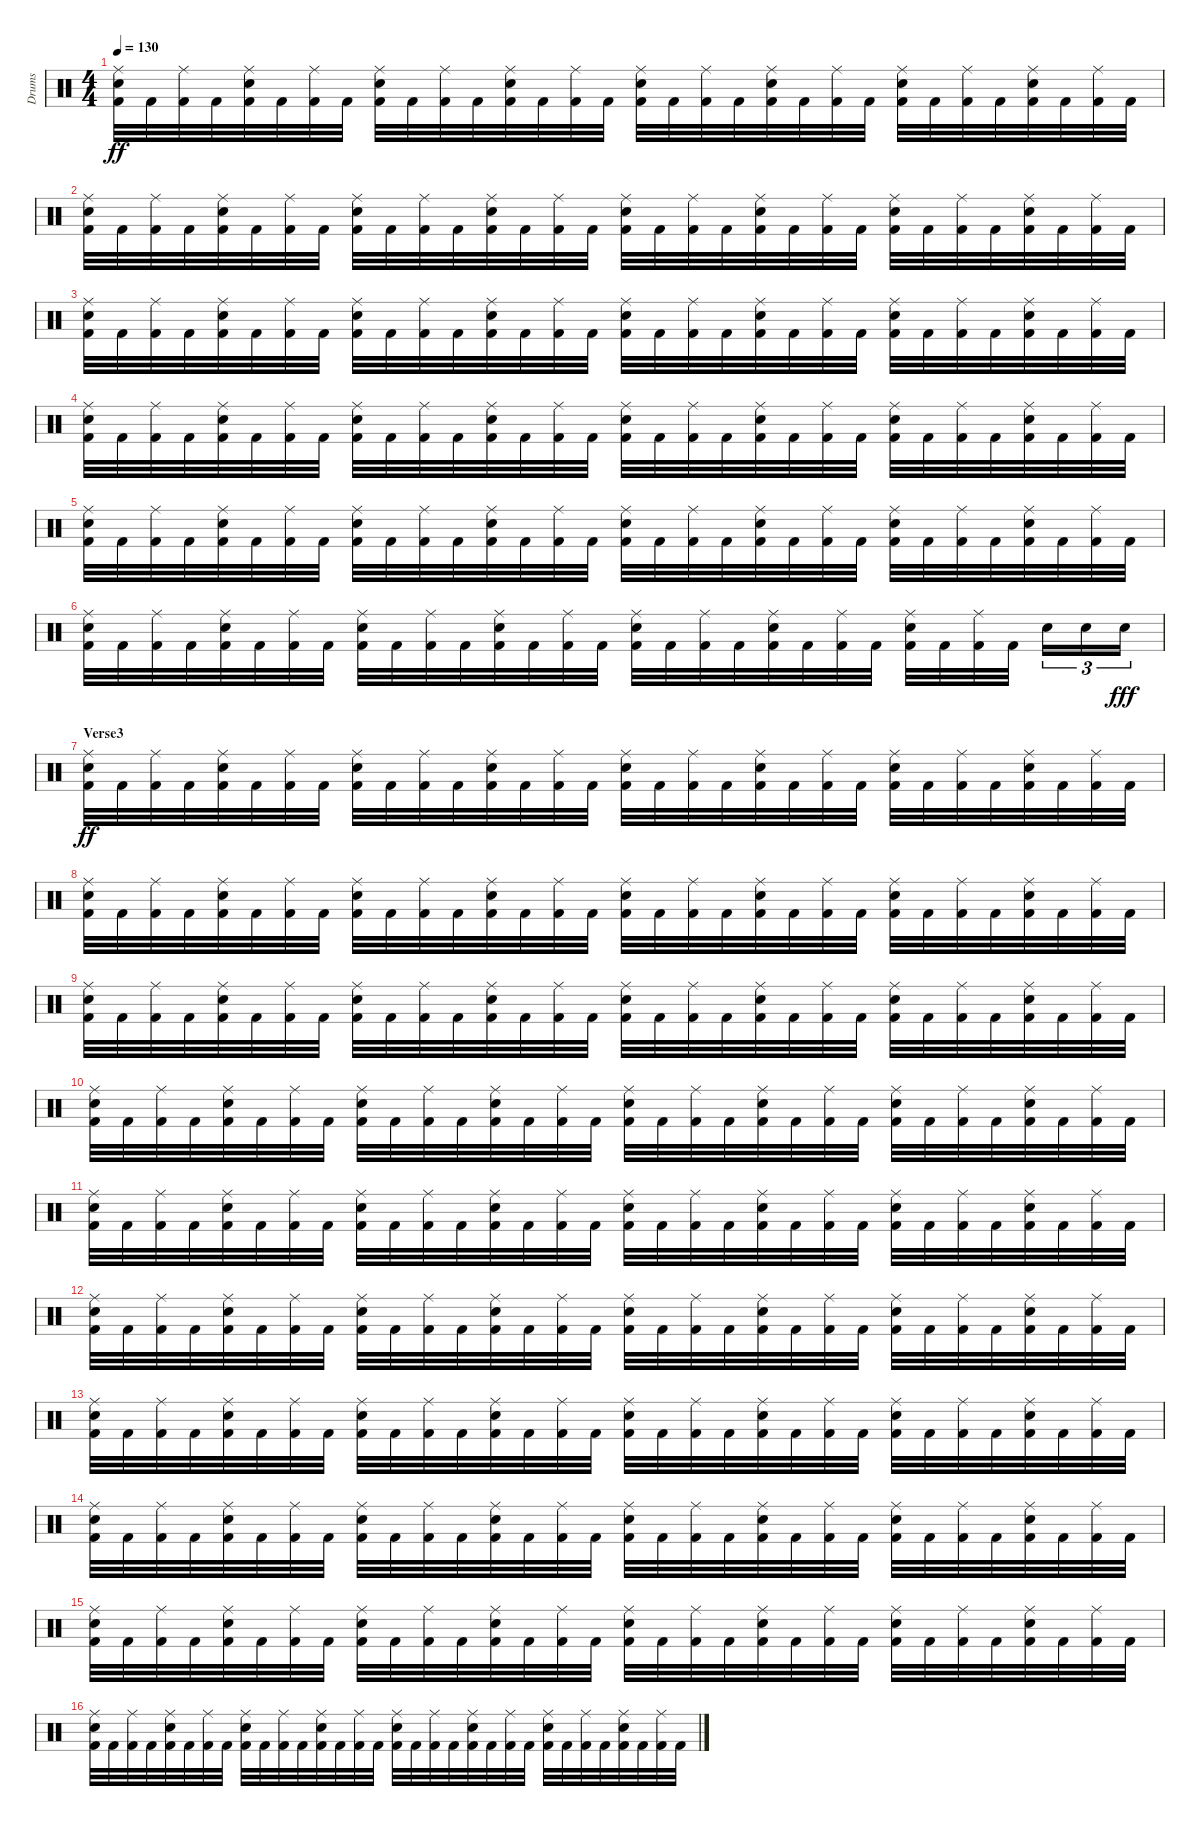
\track ("Drums" "Drums") {instrument percussion}
\staff {score}
\articulation defaults
\ts (4 4)
\tempo 130
\clef neutral
\ks c
("Electric Snare (hit)" "Ride (middle)" "Kick (hit) 2").32{dy ff} "Kick (hit) 2".32 ("Ride (middle)" "Kick (hit) 2").32 "Kick (hit) 2".32 ("Electric Snare (hit)" "Ride (middle)" "Kick (hit) 2").32 "Kick (hit) 2".32 ("Ride (middle)" "Kick (hit) 2").32 "Kick (hit) 2".32 ("Electric Snare (hit)" "Ride (middle)" "Kick (hit) 2").32 "Kick (hit) 2".32 ("Ride (middle)" "Kick (hit) 2").32 "Kick (hit) 2".32 ("Electric Snare (hit)" "Ride (middle)" "Kick (hit) 2").32 "Kick (hit) 2".32 ("Ride (middle)" "Kick (hit) 2").32 "Kick (hit) 2".32 ("Electric Snare (hit)" "Ride (middle)" "Kick (hit) 2").32 "Kick (hit) 2".32 ("Ride (middle)" "Kick (hit) 2").32 "Kick (hit) 2".32 ("Electric Snare (hit)" "Ride (middle)" "Kick (hit) 2").32 "Kick (hit) 2".32 ("Ride (middle)" "Kick (hit) 2").32 "Kick (hit) 2".32 ("Electric Snare (hit)" "Ride (middle)" "Kick (hit) 2").32 "Kick (hit) 2".32 ("Ride (middle)" "Kick (hit) 2").32 "Kick (hit) 2".32 ("Electric Snare (hit)" "Ride (middle)" "Kick (hit) 2").32 "Kick (hit) 2".32 ("Ride (middle)" "Kick (hit) 2").32 "Kick (hit) 2".32 |
("Electric Snare (hit)" "Ride (middle)" "Kick (hit) 2").32 "Kick (hit) 2".32 ("Ride (middle)" "Kick (hit) 2").32 "Kick (hit) 2".32 ("Electric Snare (hit)" "Ride (middle)" "Kick (hit) 2").32 "Kick (hit) 2".32 ("Ride (middle)" "Kick (hit) 2").32 "Kick (hit) 2".32 ("Electric Snare (hit)" "Ride (middle)" "Kick (hit) 2").32 "Kick (hit) 2".32 ("Ride (middle)" "Kick (hit) 2").32 "Kick (hit) 2".32 ("Electric Snare (hit)" "Ride (middle)" "Kick (hit) 2").32 "Kick (hit) 2".32 ("Ride (middle)" "Kick (hit) 2").32 "Kick (hit) 2".32 ("Electric Snare (hit)" "Ride (middle)" "Kick (hit) 2").32 "Kick (hit) 2".32 ("Ride (middle)" "Kick (hit) 2").32 "Kick (hit) 2".32 ("Electric Snare (hit)" "Ride (middle)" "Kick (hit) 2").32 "Kick (hit) 2".32 ("Ride (middle)" "Kick (hit) 2").32 "Kick (hit) 2".32 ("Electric Snare (hit)" "Ride (middle)" "Kick (hit) 2").32 "Kick (hit) 2".32 ("Ride (middle)" "Kick (hit) 2").32 "Kick (hit) 2".32 ("Electric Snare (hit)" "Ride (middle)" "Kick (hit) 2").32 "Kick (hit) 2".32 ("Ride (middle)" "Kick (hit) 2").32 "Kick (hit) 2".32 |
("Electric Snare (hit)" "Ride (middle)" "Kick (hit) 2").32 "Kick (hit) 2".32 ("Ride (middle)" "Kick (hit) 2").32 "Kick (hit) 2".32 ("Electric Snare (hit)" "Ride (middle)" "Kick (hit) 2").32 "Kick (hit) 2".32 ("Ride (middle)" "Kick (hit) 2").32 "Kick (hit) 2".32 ("Electric Snare (hit)" "Ride (middle)" "Kick (hit) 2").32 "Kick (hit) 2".32 ("Ride (middle)" "Kick (hit) 2").32 "Kick (hit) 2".32 ("Electric Snare (hit)" "Ride (middle)" "Kick (hit) 2").32 "Kick (hit) 2".32 ("Ride (middle)" "Kick (hit) 2").32 "Kick (hit) 2".32 ("Electric Snare (hit)" "Ride (middle)" "Kick (hit) 2").32 "Kick (hit) 2".32 ("Ride (middle)" "Kick (hit) 2").32 "Kick (hit) 2".32 ("Electric Snare (hit)" "Ride (middle)" "Kick (hit) 2").32 "Kick (hit) 2".32 ("Ride (middle)" "Kick (hit) 2").32 "Kick (hit) 2".32 ("Electric Snare (hit)" "Ride (middle)" "Kick (hit) 2").32 "Kick (hit) 2".32 ("Ride (middle)" "Kick (hit) 2").32 "Kick (hit) 2".32 ("Electric Snare (hit)" "Ride (middle)" "Kick (hit) 2").32 "Kick (hit) 2".32 ("Ride (middle)" "Kick (hit) 2").32 "Kick (hit) 2".32 |
("Electric Snare (hit)" "Ride (middle)" "Kick (hit) 2").32 "Kick (hit) 2".32 ("Ride (middle)" "Kick (hit) 2").32 "Kick (hit) 2".32 ("Electric Snare (hit)" "Ride (middle)" "Kick (hit) 2").32 "Kick (hit) 2".32 ("Ride (middle)" "Kick (hit) 2").32 "Kick (hit) 2".32 ("Electric Snare (hit)" "Ride (middle)" "Kick (hit) 2").32 "Kick (hit) 2".32 ("Ride (middle)" "Kick (hit) 2").32 "Kick (hit) 2".32 ("Electric Snare (hit)" "Ride (middle)" "Kick (hit) 2").32 "Kick (hit) 2".32 ("Ride (middle)" "Kick (hit) 2").32 "Kick (hit) 2".32 ("Electric Snare (hit)" "Ride (middle)" "Kick (hit) 2").32 "Kick (hit) 2".32 ("Ride (middle)" "Kick (hit) 2").32 "Kick (hit) 2".32 ("Electric Snare (hit)" "Ride (middle)" "Kick (hit) 2").32 "Kick (hit) 2".32 ("Ride (middle)" "Kick (hit) 2").32 "Kick (hit) 2".32 ("Electric Snare (hit)" "Ride (middle)" "Kick (hit) 2").32 "Kick (hit) 2".32 ("Ride (middle)" "Kick (hit) 2").32 "Kick (hit) 2".32 ("Electric Snare (hit)" "Ride (middle)" "Kick (hit) 2").32 "Kick (hit) 2".32 ("Ride (middle)" "Kick (hit) 2").32 "Kick (hit) 2".32 |
("Electric Snare (hit)" "Ride (middle)" "Kick (hit) 2").32 "Kick (hit) 2".32 ("Ride (middle)" "Kick (hit) 2").32 "Kick (hit) 2".32 ("Electric Snare (hit)" "Ride (middle)" "Kick (hit) 2").32 "Kick (hit) 2".32 ("Ride (middle)" "Kick (hit) 2").32 "Kick (hit) 2".32 ("Electric Snare (hit)" "Ride (middle)" "Kick (hit) 2").32 "Kick (hit) 2".32 ("Ride (middle)" "Kick (hit) 2").32 "Kick (hit) 2".32 ("Electric Snare (hit)" "Ride (middle)" "Kick (hit) 2").32 "Kick (hit) 2".32 ("Ride (middle)" "Kick (hit) 2").32 "Kick (hit) 2".32 ("Electric Snare (hit)" "Ride (middle)" "Kick (hit) 2").32 "Kick (hit) 2".32 ("Ride (middle)" "Kick (hit) 2").32 "Kick (hit) 2".32 ("Electric Snare (hit)" "Ride (middle)" "Kick (hit) 2").32 "Kick (hit) 2".32 ("Ride (middle)" "Kick (hit) 2").32 "Kick (hit) 2".32 ("Electric Snare (hit)" "Ride (middle)" "Kick (hit) 2").32 "Kick (hit) 2".32 ("Ride (middle)" "Kick (hit) 2").32 "Kick (hit) 2".32 ("Electric Snare (hit)" "Ride (middle)" "Kick (hit) 2").32 "Kick (hit) 2".32 ("Ride (middle)" "Kick (hit) 2").32 "Kick (hit) 2".32 |
("Electric Snare (hit)" "Ride (middle)" "Kick (hit) 2").32 "Kick (hit) 2".32 ("Ride (middle)" "Kick (hit) 2").32 "Kick (hit) 2".32 ("Electric Snare (hit)" "Ride (middle)" "Kick (hit) 2").32 "Kick (hit) 2".32 ("Ride (middle)" "Kick (hit) 2").32 "Kick (hit) 2".32 ("Electric Snare (hit)" "Ride (middle)" "Kick (hit) 2").32 "Kick (hit) 2".32 ("Ride (middle)" "Kick (hit) 2").32 "Kick (hit) 2".32 ("Electric Snare (hit)" "Ride (middle)" "Kick (hit) 2").32 "Kick (hit) 2".32 ("Ride (middle)" "Kick (hit) 2").32 "Kick (hit) 2".32 ("Electric Snare (hit)" "Ride (middle)" "Kick (hit) 2").32 "Kick (hit) 2".32 ("Ride (middle)" "Kick (hit) 2").32 "Kick (hit) 2".32 ("Electric Snare (hit)" "Ride (middle)" "Kick (hit) 2").32 "Kick (hit) 2".32 ("Ride (middle)" "Kick (hit) 2").32 "Kick (hit) 2".32 ("Electric Snare (hit)" "Ride (middle)" "Kick (hit) 2").32 "Kick (hit) 2".32 ("Ride (middle)" "Kick (hit) 2").32 "Kick (hit) 2".32 "Electric Snare (hit)".16{tu (3 2)} "Electric Snare (hit)".16{tu (3 2)} "Electric Snare (hit)".16{tu (3 2) dy fff} |
\section ("" "Verse3")
("Electric Snare (hit)" "Ride (middle)" "Kick (hit) 2").32{dy ff} "Kick (hit) 2".32 ("Ride (middle)" "Kick (hit) 2").32 "Kick (hit) 2".32 ("Electric Snare (hit)" "Ride (middle)" "Kick (hit) 2").32 "Kick (hit) 2".32 ("Ride (middle)" "Kick (hit) 2").32 "Kick (hit) 2".32 ("Electric Snare (hit)" "Ride (middle)" "Kick (hit) 2").32 "Kick (hit) 2".32 ("Ride (middle)" "Kick (hit) 2").32 "Kick (hit) 2".32 ("Electric Snare (hit)" "Ride (middle)" "Kick (hit) 2").32 "Kick (hit) 2".32 ("Ride (middle)" "Kick (hit) 2").32 "Kick (hit) 2".32 ("Electric Snare (hit)" "Ride (middle)" "Kick (hit) 2").32 "Kick (hit) 2".32 ("Ride (middle)" "Kick (hit) 2").32 "Kick (hit) 2".32 ("Electric Snare (hit)" "Ride (middle)" "Kick (hit) 2").32 "Kick (hit) 2".32 ("Ride (middle)" "Kick (hit) 2").32 "Kick (hit) 2".32 ("Electric Snare (hit)" "Ride (middle)" "Kick (hit) 2").32 "Kick (hit) 2".32 ("Ride (middle)" "Kick (hit) 2").32 "Kick (hit) 2".32 ("Electric Snare (hit)" "Ride (middle)" "Kick (hit) 2").32 "Kick (hit) 2".32 ("Ride (middle)" "Kick (hit) 2").32 "Kick (hit) 2".32 |
("Electric Snare (hit)" "Ride (middle)" "Kick (hit) 2").32 "Kick (hit) 2".32 ("Ride (middle)" "Kick (hit) 2").32 "Kick (hit) 2".32 ("Electric Snare (hit)" "Ride (middle)" "Kick (hit) 2").32 "Kick (hit) 2".32 ("Ride (middle)" "Kick (hit) 2").32 "Kick (hit) 2".32 ("Electric Snare (hit)" "Ride (middle)" "Kick (hit) 2").32 "Kick (hit) 2".32 ("Ride (middle)" "Kick (hit) 2").32 "Kick (hit) 2".32 ("Electric Snare (hit)" "Ride (middle)" "Kick (hit) 2").32 "Kick (hit) 2".32 ("Ride (middle)" "Kick (hit) 2").32 "Kick (hit) 2".32 ("Electric Snare (hit)" "Ride (middle)" "Kick (hit) 2").32 "Kick (hit) 2".32 ("Ride (middle)" "Kick (hit) 2").32 "Kick (hit) 2".32 ("Electric Snare (hit)" "Ride (middle)" "Kick (hit) 2").32 "Kick (hit) 2".32 ("Ride (middle)" "Kick (hit) 2").32 "Kick (hit) 2".32 ("Electric Snare (hit)" "Ride (middle)" "Kick (hit) 2").32 "Kick (hit) 2".32 ("Ride (middle)" "Kick (hit) 2").32 "Kick (hit) 2".32 ("Electric Snare (hit)" "Ride (middle)" "Kick (hit) 2").32 "Kick (hit) 2".32 ("Ride (middle)" "Kick (hit) 2").32 "Kick (hit) 2".32 |
("Electric Snare (hit)" "Ride (middle)" "Kick (hit) 2").32 "Kick (hit) 2".32 ("Ride (middle)" "Kick (hit) 2").32 "Kick (hit) 2".32 ("Electric Snare (hit)" "Ride (middle)" "Kick (hit) 2").32 "Kick (hit) 2".32 ("Ride (middle)" "Kick (hit) 2").32 "Kick (hit) 2".32 ("Electric Snare (hit)" "Ride (middle)" "Kick (hit) 2").32 "Kick (hit) 2".32 ("Ride (middle)" "Kick (hit) 2").32 "Kick (hit) 2".32 ("Electric Snare (hit)" "Ride (middle)" "Kick (hit) 2").32 "Kick (hit) 2".32 ("Ride (middle)" "Kick (hit) 2").32 "Kick (hit) 2".32 ("Electric Snare (hit)" "Ride (middle)" "Kick (hit) 2").32 "Kick (hit) 2".32 ("Ride (middle)" "Kick (hit) 2").32 "Kick (hit) 2".32 ("Electric Snare (hit)" "Ride (middle)" "Kick (hit) 2").32 "Kick (hit) 2".32 ("Ride (middle)" "Kick (hit) 2").32 "Kick (hit) 2".32 ("Electric Snare (hit)" "Ride (middle)" "Kick (hit) 2").32 "Kick (hit) 2".32 ("Ride (middle)" "Kick (hit) 2").32 "Kick (hit) 2".32 ("Electric Snare (hit)" "Ride (middle)" "Kick (hit) 2").32 "Kick (hit) 2".32 ("Ride (middle)" "Kick (hit) 2").32 "Kick (hit) 2".32 |
("Electric Snare (hit)" "Ride (middle)" "Kick (hit) 2").32 "Kick (hit) 2".32 ("Ride (middle)" "Kick (hit) 2").32 "Kick (hit) 2".32 ("Electric Snare (hit)" "Ride (middle)" "Kick (hit) 2").32 "Kick (hit) 2".32 ("Ride (middle)" "Kick (hit) 2").32 "Kick (hit) 2".32 ("Electric Snare (hit)" "Ride (middle)" "Kick (hit) 2").32 "Kick (hit) 2".32 ("Ride (middle)" "Kick (hit) 2").32 "Kick (hit) 2".32 ("Electric Snare (hit)" "Ride (middle)" "Kick (hit) 2").32 "Kick (hit) 2".32 ("Ride (middle)" "Kick (hit) 2").32 "Kick (hit) 2".32 ("Electric Snare (hit)" "Ride (middle)" "Kick (hit) 2").32 "Kick (hit) 2".32 ("Ride (middle)" "Kick (hit) 2").32 "Kick (hit) 2".32 ("Electric Snare (hit)" "Ride (middle)" "Kick (hit) 2").32 "Kick (hit) 2".32 ("Ride (middle)" "Kick (hit) 2").32 "Kick (hit) 2".32 ("Electric Snare (hit)" "Ride (middle)" "Kick (hit) 2").32 "Kick (hit) 2".32 ("Ride (middle)" "Kick (hit) 2").32 "Kick (hit) 2".32 ("Electric Snare (hit)" "Ride (middle)" "Kick (hit) 2").32 "Kick (hit) 2".32 ("Ride (middle)" "Kick (hit) 2").32 "Kick (hit) 2".32 |
("Electric Snare (hit)" "Ride (middle)" "Kick (hit) 2").32 "Kick (hit) 2".32 ("Ride (middle)" "Kick (hit) 2").32 "Kick (hit) 2".32 ("Electric Snare (hit)" "Ride (middle)" "Kick (hit) 2").32 "Kick (hit) 2".32 ("Ride (middle)" "Kick (hit) 2").32 "Kick (hit) 2".32 ("Electric Snare (hit)" "Ride (middle)" "Kick (hit) 2").32 "Kick (hit) 2".32 ("Ride (middle)" "Kick (hit) 2").32 "Kick (hit) 2".32 ("Electric Snare (hit)" "Ride (middle)" "Kick (hit) 2").32 "Kick (hit) 2".32 ("Ride (middle)" "Kick (hit) 2").32 "Kick (hit) 2".32 ("Electric Snare (hit)" "Ride (middle)" "Kick (hit) 2").32 "Kick (hit) 2".32 ("Ride (middle)" "Kick (hit) 2").32 "Kick (hit) 2".32 ("Electric Snare (hit)" "Ride (middle)" "Kick (hit) 2").32 "Kick (hit) 2".32 ("Ride (middle)" "Kick (hit) 2").32 "Kick (hit) 2".32 ("Electric Snare (hit)" "Ride (middle)" "Kick (hit) 2").32 "Kick (hit) 2".32 ("Ride (middle)" "Kick (hit) 2").32 "Kick (hit) 2".32 ("Electric Snare (hit)" "Ride (middle)" "Kick (hit) 2").32 "Kick (hit) 2".32 ("Ride (middle)" "Kick (hit) 2").32 "Kick (hit) 2".32 |
("Electric Snare (hit)" "Ride (middle)" "Kick (hit) 2").32 "Kick (hit) 2".32 ("Ride (middle)" "Kick (hit) 2").32 "Kick (hit) 2".32 ("Electric Snare (hit)" "Ride (middle)" "Kick (hit) 2").32 "Kick (hit) 2".32 ("Ride (middle)" "Kick (hit) 2").32 "Kick (hit) 2".32 ("Electric Snare (hit)" "Ride (middle)" "Kick (hit) 2").32 "Kick (hit) 2".32 ("Ride (middle)" "Kick (hit) 2").32 "Kick (hit) 2".32 ("Electric Snare (hit)" "Ride (middle)" "Kick (hit) 2").32 "Kick (hit) 2".32 ("Ride (middle)" "Kick (hit) 2").32 "Kick (hit) 2".32 ("Electric Snare (hit)" "Ride (middle)" "Kick (hit) 2").32 "Kick (hit) 2".32 ("Ride (middle)" "Kick (hit) 2").32 "Kick (hit) 2".32 ("Electric Snare (hit)" "Ride (middle)" "Kick (hit) 2").32 "Kick (hit) 2".32 ("Ride (middle)" "Kick (hit) 2").32 "Kick (hit) 2".32 ("Electric Snare (hit)" "Ride (middle)" "Kick (hit) 2").32 "Kick (hit) 2".32 ("Ride (middle)" "Kick (hit) 2").32 "Kick (hit) 2".32 ("Electric Snare (hit)" "Ride (middle)" "Kick (hit) 2").32 "Kick (hit) 2".32 ("Ride (middle)" "Kick (hit) 2").32 "Kick (hit) 2".32 |
("Electric Snare (hit)" "Ride (middle)" "Kick (hit) 2").32 "Kick (hit) 2".32 ("Ride (middle)" "Kick (hit) 2").32 "Kick (hit) 2".32 ("Electric Snare (hit)" "Ride (middle)" "Kick (hit) 2").32 "Kick (hit) 2".32 ("Ride (middle)" "Kick (hit) 2").32 "Kick (hit) 2".32 ("Electric Snare (hit)" "Ride (middle)" "Kick (hit) 2").32 "Kick (hit) 2".32 ("Ride (middle)" "Kick (hit) 2").32 "Kick (hit) 2".32 ("Electric Snare (hit)" "Ride (middle)" "Kick (hit) 2").32 "Kick (hit) 2".32 ("Ride (middle)" "Kick (hit) 2").32 "Kick (hit) 2".32 ("Electric Snare (hit)" "Ride (middle)" "Kick (hit) 2").32 "Kick (hit) 2".32 ("Ride (middle)" "Kick (hit) 2").32 "Kick (hit) 2".32 ("Electric Snare (hit)" "Ride (middle)" "Kick (hit) 2").32 "Kick (hit) 2".32 ("Ride (middle)" "Kick (hit) 2").32 "Kick (hit) 2".32 ("Electric Snare (hit)" "Ride (middle)" "Kick (hit) 2").32 "Kick (hit) 2".32 ("Ride (middle)" "Kick (hit) 2").32 "Kick (hit) 2".32 ("Electric Snare (hit)" "Ride (middle)" "Kick (hit) 2").32 "Kick (hit) 2".32 ("Ride (middle)" "Kick (hit) 2").32 "Kick (hit) 2".32 |
("Electric Snare (hit)" "Ride (middle)" "Kick (hit) 2").32 "Kick (hit) 2".32 ("Ride (middle)" "Kick (hit) 2").32 "Kick (hit) 2".32 ("Electric Snare (hit)" "Ride (middle)" "Kick (hit) 2").32 "Kick (hit) 2".32 ("Ride (middle)" "Kick (hit) 2").32 "Kick (hit) 2".32 ("Electric Snare (hit)" "Ride (middle)" "Kick (hit) 2").32 "Kick (hit) 2".32 ("Ride (middle)" "Kick (hit) 2").32 "Kick (hit) 2".32 ("Electric Snare (hit)" "Ride (middle)" "Kick (hit) 2").32 "Kick (hit) 2".32 ("Ride (middle)" "Kick (hit) 2").32 "Kick (hit) 2".32 ("Electric Snare (hit)" "Ride (middle)" "Kick (hit) 2").32 "Kick (hit) 2".32 ("Ride (middle)" "Kick (hit) 2").32 "Kick (hit) 2".32 ("Electric Snare (hit)" "Ride (middle)" "Kick (hit) 2").32 "Kick (hit) 2".32 ("Ride (middle)" "Kick (hit) 2").32 "Kick (hit) 2".32 ("Electric Snare (hit)" "Ride (middle)" "Kick (hit) 2").32 "Kick (hit) 2".32 ("Ride (middle)" "Kick (hit) 2").32 "Kick (hit) 2".32 ("Electric Snare (hit)" "Ride (middle)" "Kick (hit) 2").32 "Kick (hit) 2".32 ("Ride (middle)" "Kick (hit) 2").32 "Kick (hit) 2".32 |
("Electric Snare (hit)" "Ride (middle)" "Kick (hit) 2").32 "Kick (hit) 2".32 ("Ride (middle)" "Kick (hit) 2").32 "Kick (hit) 2".32 ("Electric Snare (hit)" "Ride (middle)" "Kick (hit) 2").32 "Kick (hit) 2".32 ("Ride (middle)" "Kick (hit) 2").32 "Kick (hit) 2".32 ("Electric Snare (hit)" "Ride (middle)" "Kick (hit) 2").32 "Kick (hit) 2".32 ("Ride (middle)" "Kick (hit) 2").32 "Kick (hit) 2".32 ("Electric Snare (hit)" "Ride (middle)" "Kick (hit) 2").32 "Kick (hit) 2".32 ("Ride (middle)" "Kick (hit) 2").32 "Kick (hit) 2".32 ("Electric Snare (hit)" "Ride (middle)" "Kick (hit) 2").32 "Kick (hit) 2".32 ("Ride (middle)" "Kick (hit) 2").32 "Kick (hit) 2".32 ("Electric Snare (hit)" "Ride (middle)" "Kick (hit) 2").32 "Kick (hit) 2".32 ("Ride (middle)" "Kick (hit) 2").32 "Kick (hit) 2".32 ("Electric Snare (hit)" "Ride (middle)" "Kick (hit) 2").32 "Kick (hit) 2".32 ("Ride (middle)" "Kick (hit) 2").32 "Kick (hit) 2".32 ("Electric Snare (hit)" "Ride (middle)" "Kick (hit) 2").32 "Kick (hit) 2".32 ("Ride (middle)" "Kick (hit) 2").32 "Kick (hit) 2".32 |
("Electric Snare (hit)" "Ride (middle)" "Kick (hit) 2").32 "Kick (hit) 2".32 ("Ride (middle)" "Kick (hit) 2").32 "Kick (hit) 2".32 ("Electric Snare (hit)" "Ride (middle)" "Kick (hit) 2").32 "Kick (hit) 2".32 ("Ride (middle)" "Kick (hit) 2").32 "Kick (hit) 2".32 ("Electric Snare (hit)" "Ride (middle)" "Kick (hit) 2").32 "Kick (hit) 2".32 ("Ride (middle)" "Kick (hit) 2").32 "Kick (hit) 2".32 ("Electric Snare (hit)" "Ride (middle)" "Kick (hit) 2").32 "Kick (hit) 2".32 ("Ride (middle)" "Kick (hit) 2").32 "Kick (hit) 2".32 ("Electric Snare (hit)" "Ride (middle)" "Kick (hit) 2").32 "Kick (hit) 2".32 ("Ride (middle)" "Kick (hit) 2").32 "Kick (hit) 2".32 ("Electric Snare (hit)" "Ride (middle)" "Kick (hit) 2").32 "Kick (hit) 2".32 ("Ride (middle)" "Kick (hit) 2").32 "Kick (hit) 2".32 ("Electric Snare (hit)" "Ride (middle)" "Kick (hit) 2").32 "Kick (hit) 2".32 ("Ride (middle)" "Kick (hit) 2").32 "Kick (hit) 2".32 ("Electric Snare (hit)" "Ride (middle)" "Kick (hit) 2").32 "Kick (hit) 2".32 ("Ride (middle)" "Kick (hit) 2").32 "Kick (hit) 2".32
